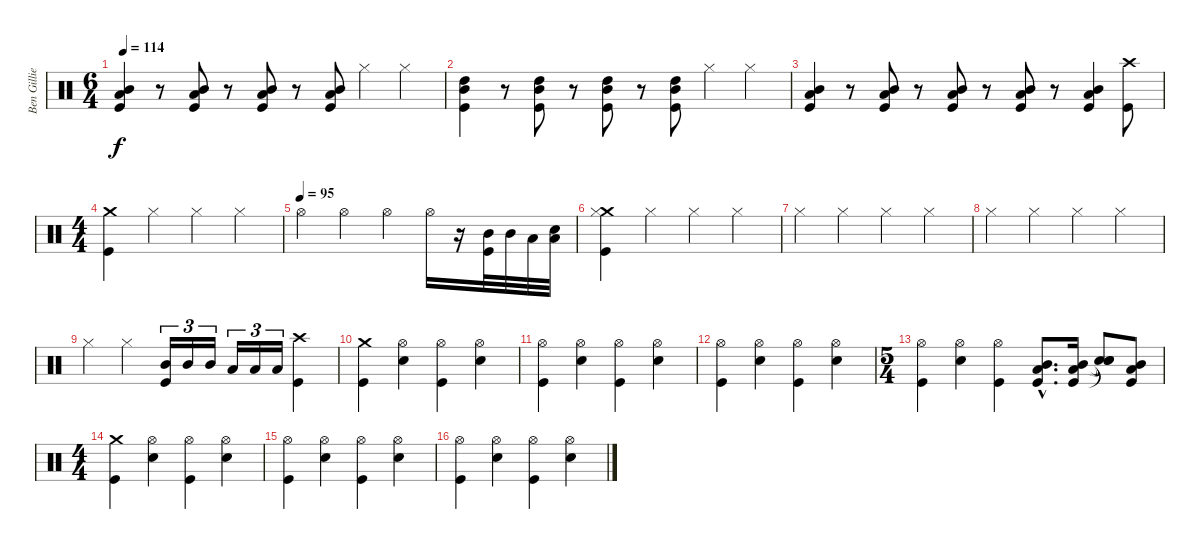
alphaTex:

\track ("Ben Gillies (drums)" "Ben Gillie") {instrument percussion}
\staff {score}
\articulation defaults
\ts (6 4)
\tempo 114
\clef neutral
\ks c
("Mid Tom (hit)" "Low Tom (hit)" "Kick (hit)").4{dy f} r.8 ("Mid Tom (hit)" "Low Tom (hit)" "Kick (hit)").8 r.8 ("Mid Tom (hit)" "Low Tom (hit)" "Kick (hit)").8 r.8 ("Mid Tom (hit)" "Low Tom (hit)" "Kick (hit)").8 "Hi-Hat (closed)".4 "Hi-Hat (closed)".4 |
("Mid Tom (hit)" "High Tom (hit)" "Kick (hit)").4 r.8 ("Mid Tom (hit)" "High Tom (hit)" "Kick (hit)").8 r.8 ("High Tom (hit)" "Mid Tom (hit)" "Kick (hit)").8 r.8 ("High Tom (hit)" "Mid Tom (hit)" "Kick (hit)").8 "Hi-Hat (closed)".4 "Hi-Hat (closed)".4 |
("Mid Tom (hit)" "Low Tom (hit)" "Kick (hit)").4 r.8 ("Mid Tom (hit)" "Low Tom (hit)" "Kick (hit)").8 r.8 ("Mid Tom (hit)" "Low Tom (hit)" "Kick (hit)").8 r.8 ("Mid Tom (hit)" "Low Tom (hit)" "Kick (hit)").8 r.8 ("Mid Tom (hit)" "Low Tom (hit)" "Kick (hit)").4 ("Crash high (hit)" "Kick (hit)").8 |
\ts (4 4)
("Crash medium (hit)" "Kick (hit)").4 "Hi-Hat (closed)".4 "Hi-Hat (closed)".4 "Hi-Hat (closed)".4 |
\tempo (95)
"Hi-Hat (open)".4 "Hi-Hat (open)".4 "Hi-Hat (open)".4 "Hi-Hat (open)".16 r.16 ("Kick (hit)" "Mid Tom (hit)").32 "Mid Tom (hit)".32 "Low Tom (hit)".32 ("Snare (hit) 2" "Low Tom (hit)").32 |
("Crash medium (hit)" "Hi-Hat (closed)" "Kick (hit)").4 "Hi-Hat (closed)".4 "Hi-Hat (closed)".4 "Hi-Hat (closed)".4 |
"Hi-Hat (closed)".4 "Hi-Hat (closed)".4 "Hi-Hat (closed)".4 "Hi-Hat (closed)".4 |
"Hi-Hat (closed)".4 "Hi-Hat (closed)".4 "Hi-Hat (closed)".4 "Hi-Hat (closed)".4 |
"Hi-Hat (closed)".4 "Hi-Hat (closed)".4 ("Kick (hit)" "Mid Tom (hit)").16{tu (3 2)} "Mid Tom (hit)".16{tu (3 2)} "Mid Tom (hit)".16{tu (3 2)} "Low Tom (hit)".16{tu (3 2)} "Low Tom (hit)".16{tu (3 2)} "Low Tom (hit)".16{tu (3 2)} ("Crash high (hit)" "Kick (hit)").4 |
("Crash medium (hit)" "Kick (hit)").4 ("Snare (hit) 2" "Hi-Hat (open)").4 ("Kick (hit)" "Hi-Hat (open)").4 ("Snare (hit) 2" "Hi-Hat (open)").4 |
("Kick (hit)" "Hi-Hat (open)").4 ("Snare (hit) 2" "Hi-Hat (open)").4 ("Kick (hit)" "Hi-Hat (open)").4 ("Snare (hit) 2" "Hi-Hat (open)").4 |
("Kick (hit)" "Hi-Hat (open)").4 ("Snare (hit) 2" "Hi-Hat (open)").4 ("Kick (hit)" "Hi-Hat (open)").4 ("Snare (hit) 2" "Hi-Hat (open)").4 |
\ts (5 4)
("Kick (hit)" "Hi-Hat (open)").4 ("Snare (hit) 2" "Hi-Hat (open)").4 ("Kick (hit)" "Hi-Hat (open)").4 ("Low Tom (hit)"{hac} "Mid Tom (hit)"{hac} "Kick (hit)"{hac}).8{d} ("Low Tom (hit)" "Mid Tom (hit)" "Kick (hit)").16 ("Snare (hit)"{t} "Snare (hit)"{t} "Snare (hit)"{t}).8 ("Low Tom (hit)" "Mid Tom (hit)" "Kick (hit)").8 |
\ts (4 4)
("Crash medium (hit)" "Kick (hit)").4 ("Snare (hit) 2" "Hi-Hat (open)").4 ("Kick (hit)" "Hi-Hat (open)").4 ("Snare (hit) 2" "Hi-Hat (open)").4 |
("Kick (hit)" "Hi-Hat (open)").4 ("Snare (hit) 2" "Hi-Hat (open)").4 ("Kick (hit)" "Hi-Hat (open)").4 ("Snare (hit) 2" "Hi-Hat (open)").4 |
("Kick (hit)" "Hi-Hat (open)").4 ("Snare (hit) 2" "Hi-Hat (open)").4 ("Kick (hit)" "Hi-Hat (open)").4 ("Snare (hit) 2" "Hi-Hat (open)").4
